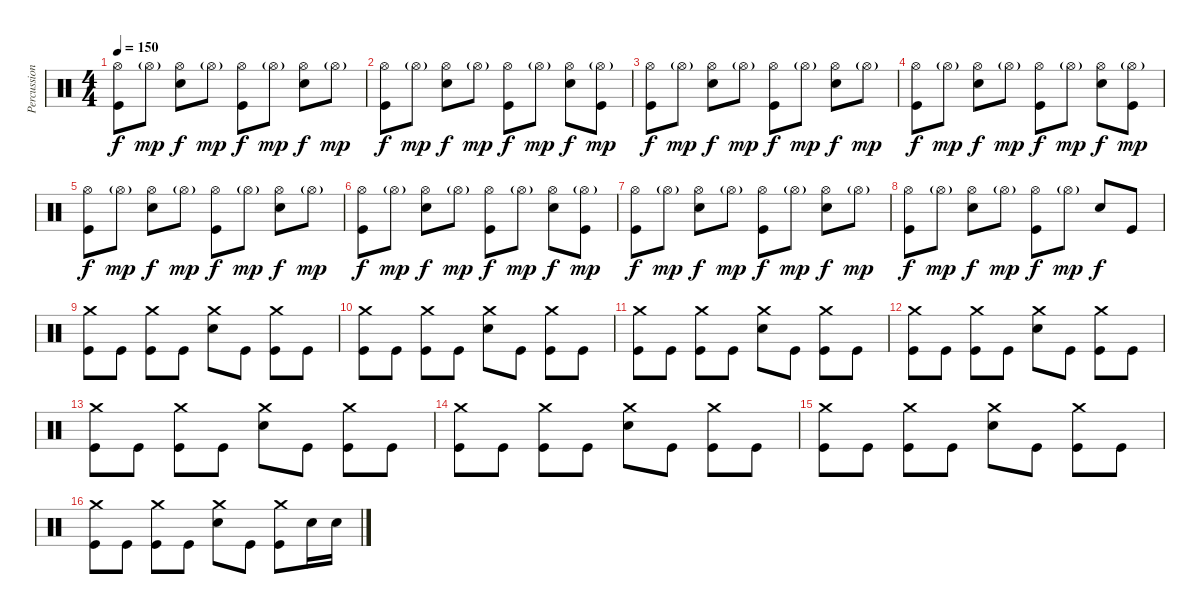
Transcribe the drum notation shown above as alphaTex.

\track ("Percussion" "Percussion") {instrument percussion}
\staff {score}
\articulation defaults
\ts (4 4)
\tempo 150
\clef neutral
\ks c
("Hi-Hat (open)" "Kick (hit)").8{dy f} "Hi-Hat (open)"{g}.8{dy mp} ("Hi-Hat (open)" "Electric Snare (hit)").8{dy f} "Hi-Hat (open)"{g}.8{dy mp} ("Hi-Hat (open)" "Kick (hit)").8{dy f} "Hi-Hat (open)"{g}.8{dy mp} ("Hi-Hat (open)" "Electric Snare (hit)").8{dy f} "Hi-Hat (open)"{g}.8{dy mp} |
("Hi-Hat (open)" "Kick (hit)").8{dy f} "Hi-Hat (open)"{g}.8{dy mp} ("Hi-Hat (open)" "Electric Snare (hit)").8{dy f} "Hi-Hat (open)"{g}.8{dy mp} ("Hi-Hat (open)" "Kick (hit)").8{dy f} "Hi-Hat (open)"{g}.8{dy mp} ("Hi-Hat (open)" "Electric Snare (hit)").8{dy f} ("Hi-Hat (open)"{g} "Kick (hit)").8{dy mp} |
("Hi-Hat (open)" "Kick (hit)").8{dy f} "Hi-Hat (open)"{g}.8{dy mp} ("Hi-Hat (open)" "Electric Snare (hit)").8{dy f} "Hi-Hat (open)"{g}.8{dy mp} ("Hi-Hat (open)" "Kick (hit)").8{dy f} "Hi-Hat (open)"{g}.8{dy mp} ("Hi-Hat (open)" "Electric Snare (hit)").8{dy f} "Hi-Hat (open)"{g}.8{dy mp} |
("Hi-Hat (open)" "Kick (hit)").8{dy f} "Hi-Hat (open)"{g}.8{dy mp} ("Hi-Hat (open)" "Electric Snare (hit)").8{dy f} "Hi-Hat (open)"{g}.8{dy mp} ("Hi-Hat (open)" "Kick (hit)").8{dy f} "Hi-Hat (open)"{g}.8{dy mp} ("Hi-Hat (open)" "Electric Snare (hit)").8{dy f} ("Hi-Hat (open)"{g} "Kick (hit)").8{dy mp} |
("Hi-Hat (open)" "Kick (hit)").8{dy f} "Hi-Hat (open)"{g}.8{dy mp} ("Hi-Hat (open)" "Electric Snare (hit)").8{dy f} "Hi-Hat (open)"{g}.8{dy mp} ("Hi-Hat (open)" "Kick (hit)").8{dy f} "Hi-Hat (open)"{g}.8{dy mp} ("Hi-Hat (open)" "Electric Snare (hit)").8{dy f} "Hi-Hat (open)"{g}.8{dy mp} |
("Hi-Hat (open)" "Kick (hit)").8{dy f} "Hi-Hat (open)"{g}.8{dy mp} ("Hi-Hat (open)" "Electric Snare (hit)").8{dy f} "Hi-Hat (open)"{g}.8{dy mp} ("Hi-Hat (open)" "Kick (hit)").8{dy f} "Hi-Hat (open)"{g}.8{dy mp} ("Hi-Hat (open)" "Electric Snare (hit)").8{dy f} ("Hi-Hat (open)"{g} "Kick (hit)").8{dy mp} |
("Hi-Hat (open)" "Kick (hit)").8{dy f} "Hi-Hat (open)"{g}.8{dy mp} ("Hi-Hat (open)" "Electric Snare (hit)").8{dy f} "Hi-Hat (open)"{g}.8{dy mp} ("Hi-Hat (open)" "Kick (hit)").8{dy f} "Hi-Hat (open)"{g}.8{dy mp} ("Hi-Hat (open)" "Electric Snare (hit)").8{dy f} "Hi-Hat (open)"{g}.8{dy mp} |
("Hi-Hat (open)" "Kick (hit)").8{dy f} "Hi-Hat (open)"{g}.8{dy mp} ("Hi-Hat (open)" "Electric Snare (hit)").8{dy f} "Hi-Hat (open)"{g}.8{dy mp} ("Hi-Hat (open)" "Kick (hit)").8{dy f} "Hi-Hat (open)"{g}.8{dy mp} "Electric Snare (hit)".8{dy f} "Kick (hit)".8 |
("Crash medium (hit)" "Kick (hit)").8 "Kick (hit)".8 ("Crash medium (hit)" "Kick (hit)").8 "Kick (hit)".8 ("Crash medium (hit)" "Electric Snare (hit)").8 "Kick (hit)".8 ("Crash medium (hit)" "Kick (hit)").8 "Kick (hit)".8 |
("Crash medium (hit)" "Kick (hit)").8 "Kick (hit)".8 ("Crash medium (hit)" "Kick (hit)").8 "Kick (hit)".8 ("Crash medium (hit)" "Electric Snare (hit)").8 "Kick (hit)".8 ("Crash medium (hit)" "Kick (hit)").8 "Kick (hit)".8 |
("Crash medium (hit)" "Kick (hit)").8 "Kick (hit)".8 ("Crash medium (hit)" "Kick (hit)").8 "Kick (hit)".8 ("Crash medium (hit)" "Electric Snare (hit)").8 "Kick (hit)".8 ("Crash medium (hit)" "Kick (hit)").8 "Kick (hit)".8 |
("Crash medium (hit)" "Kick (hit)").8 "Kick (hit)".8 ("Crash medium (hit)" "Kick (hit)").8 "Kick (hit)".8 ("Crash medium (hit)" "Electric Snare (hit)").8 "Kick (hit)".8 ("Crash medium (hit)" "Kick (hit)").8 "Kick (hit)".8 |
("Crash medium (hit)" "Kick (hit)").8 "Kick (hit)".8 ("Crash medium (hit)" "Kick (hit)").8 "Kick (hit)".8 ("Crash medium (hit)" "Electric Snare (hit)").8 "Kick (hit)".8 ("Crash medium (hit)" "Kick (hit)").8 "Kick (hit)".8 |
("Crash medium (hit)" "Kick (hit)").8 "Kick (hit)".8 ("Crash medium (hit)" "Kick (hit)").8 "Kick (hit)".8 ("Crash medium (hit)" "Electric Snare (hit)").8 "Kick (hit)".8 ("Crash medium (hit)" "Kick (hit)").8 "Kick (hit)".8 |
("Crash medium (hit)" "Kick (hit)").8 "Kick (hit)".8 ("Crash medium (hit)" "Kick (hit)").8 "Kick (hit)".8 ("Crash medium (hit)" "Electric Snare (hit)").8 "Kick (hit)".8 ("Crash medium (hit)" "Kick (hit)").8 "Kick (hit)".8 |
("Crash medium (hit)" "Kick (hit)").8 "Kick (hit)".8 ("Crash medium (hit)" "Kick (hit)").8 "Kick (hit)".8 ("Crash medium (hit)" "Electric Snare (hit)").8 "Kick (hit)".8 ("Crash medium (hit)" "Kick (hit)").8 "Electric Snare (hit)".16 "Electric Snare (hit)".16
